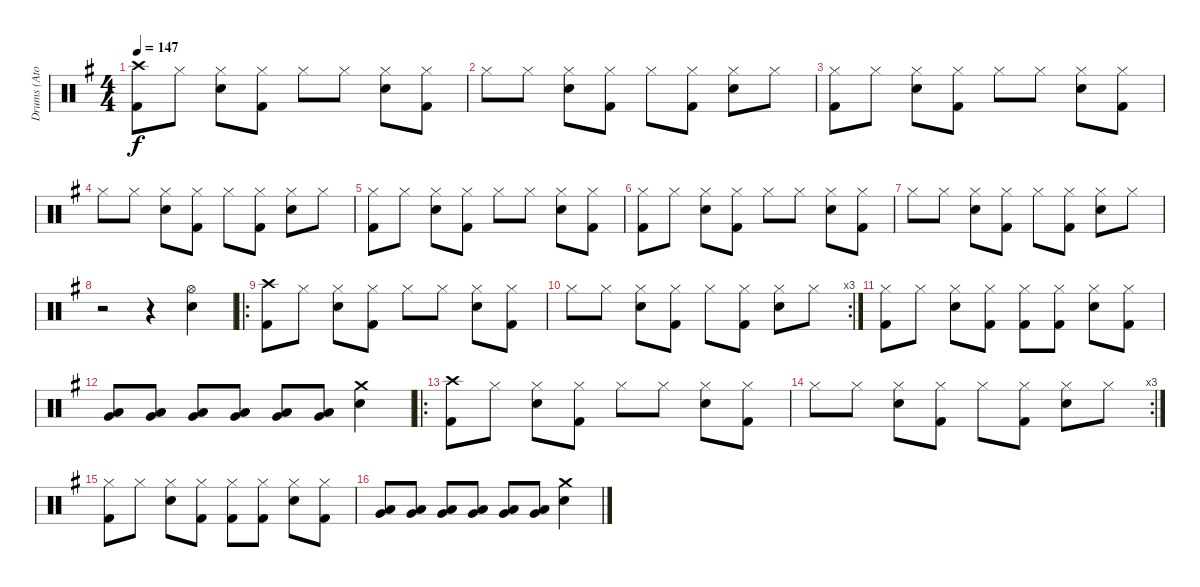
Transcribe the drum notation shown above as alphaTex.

\track ("Drums (Atom Willard)" "Drums (Ato") {instrument percussion}
\staff {score}
\articulation defaults
\ts (4 4)
\tempo 147
\clef neutral
\ks g
("Crash high (hit)" "Kick (hit) 2").8{dy f} "Hi-Hat (closed)".8 ("Hi-Hat (closed)" "Snare (hit) 2").8 ("Hi-Hat (closed)" "Kick (hit) 2").8 "Hi-Hat (closed)".8 "Hi-Hat (closed)".8 ("Hi-Hat (closed)" "Snare (hit) 2").8 ("Hi-Hat (closed)" "Kick (hit) 2").8 |
"Hi-Hat (closed)".8 "Hi-Hat (closed)".8 ("Hi-Hat (closed)" "Snare (hit) 2").8 ("Hi-Hat (closed)" "Kick (hit) 2").8 "Hi-Hat (closed)".8 ("Hi-Hat (closed)" "Kick (hit) 2").8 ("Hi-Hat (closed)" "Snare (hit) 2").8 "Hi-Hat (closed)".8 |
("Hi-Hat (closed)" "Kick (hit) 2").8 "Hi-Hat (closed)".8 ("Hi-Hat (closed)" "Snare (hit) 2").8 ("Hi-Hat (closed)" "Kick (hit) 2").8 "Hi-Hat (closed)".8 "Hi-Hat (closed)".8 ("Hi-Hat (closed)" "Snare (hit) 2").8 ("Hi-Hat (closed)" "Kick (hit) 2").8 |
"Hi-Hat (closed)".8 "Hi-Hat (closed)".8 ("Hi-Hat (closed)" "Snare (hit) 2").8 ("Hi-Hat (closed)" "Kick (hit) 2").8 "Hi-Hat (closed)".8 ("Hi-Hat (closed)" "Kick (hit) 2").8 ("Hi-Hat (closed)" "Snare (hit) 2").8 "Hi-Hat (closed)".8 |
("Hi-Hat (closed)" "Kick (hit) 2").8 "Hi-Hat (closed)".8 ("Hi-Hat (closed)" "Snare (hit) 2").8 ("Hi-Hat (closed)" "Kick (hit) 2").8 "Hi-Hat (closed)".8 "Hi-Hat (closed)".8 ("Hi-Hat (closed)" "Snare (hit) 2").8 ("Hi-Hat (closed)" "Kick (hit) 2").8 |
("Hi-Hat (closed)" "Kick (hit) 2").8 "Hi-Hat (closed)".8 ("Hi-Hat (closed)" "Snare (hit) 2").8 ("Hi-Hat (closed)" "Kick (hit) 2").8 "Hi-Hat (closed)".8 "Hi-Hat (closed)".8 ("Hi-Hat (closed)" "Snare (hit) 2").8 ("Hi-Hat (closed)" "Kick (hit) 2").8 |
"Hi-Hat (closed)".8 "Hi-Hat (closed)".8 ("Hi-Hat (closed)" "Snare (hit) 2").8 ("Hi-Hat (closed)" "Kick (hit) 2").8 "Hi-Hat (closed)".8 ("Hi-Hat (closed)" "Kick (hit) 2").8 ("Hi-Hat (closed)" "Snare (hit) 2").8 "Hi-Hat (closed)".8 |
r.2 r.4 ("Hi-Hat (open)" "Snare (hit) 2").4 |
\ro
("Crash high (hit)" "Kick (hit) 2").8 "Hi-Hat (closed)".8 ("Hi-Hat (closed)" "Snare (hit) 2").8 ("Hi-Hat (closed)" "Kick (hit) 2").8 "Hi-Hat (closed)".8 "Hi-Hat (closed)".8 ("Hi-Hat (closed)" "Snare (hit) 2").8 ("Hi-Hat (closed)" "Kick (hit) 2").8 |
\rc 3 "Hi-Hat (closed)".8 "Hi-Hat (closed)".8
("Hi-Hat (closed)" "Snare (hit) 2").8 ("Hi-Hat (closed)" "Kick (hit) 2").8 "Hi-Hat (closed)".8 ("Hi-Hat (closed)" "Kick (hit) 2").8 ("Hi-Hat (closed)" "Snare (hit) 2").8 "Hi-Hat (closed)".8 |
("Hi-Hat (closed)" "Kick (hit) 2").8 "Hi-Hat (closed)".8 ("Hi-Hat (closed)" "Snare (hit) 2").8 ("Hi-Hat (closed)" "Kick (hit) 2").8 ("Hi-Hat (closed)" "Kick (hit) 2").8 ("Hi-Hat (closed)" "Kick (hit) 2").8 ("Hi-Hat (closed)" "Snare (hit) 2").8 ("Hi-Hat (closed)" "Kick (hit) 2").8 |
("Very Low Tom (hit)" "Low Floor Tom (hit)").8 ("Very Low Tom (hit)" "Low Floor Tom (hit)").8 ("Very Low Tom (hit)" "Low Floor Tom (hit)").8 ("Very Low Tom (hit)" "Low Floor Tom (hit)").8 ("Very Low Tom (hit)" "Low Floor Tom (hit)").8 ("Very Low Tom (hit)" "Low Floor Tom (hit)").8 ("Crash medium (hit)" "Snare (hit) 2").4 |
\ro
("Crash high (hit)" "Kick (hit) 2").8 "Hi-Hat (closed)".8 ("Hi-Hat (closed)" "Snare (hit) 2").8 ("Hi-Hat (closed)" "Kick (hit) 2").8 "Hi-Hat (closed)".8 "Hi-Hat (closed)".8 ("Hi-Hat (closed)" "Snare (hit) 2").8 ("Hi-Hat (closed)" "Kick (hit) 2").8 |
\rc 3 "Hi-Hat (closed)".8 "Hi-Hat (closed)".8
("Hi-Hat (closed)" "Snare (hit) 2").8 ("Hi-Hat (closed)" "Kick (hit) 2").8 "Hi-Hat (closed)".8 ("Hi-Hat (closed)" "Kick (hit) 2").8 ("Hi-Hat (closed)" "Snare (hit) 2").8 "Hi-Hat (closed)".8 |
("Hi-Hat (closed)" "Kick (hit) 2").8 "Hi-Hat (closed)".8 ("Hi-Hat (closed)" "Snare (hit) 2").8 ("Hi-Hat (closed)" "Kick (hit) 2").8 ("Hi-Hat (closed)" "Kick (hit) 2").8 ("Hi-Hat (closed)" "Kick (hit) 2").8 ("Hi-Hat (closed)" "Snare (hit) 2").8 ("Hi-Hat (closed)" "Kick (hit) 2").8 |
("Very Low Tom (hit)" "Low Floor Tom (hit)").8 ("Very Low Tom (hit)" "Low Floor Tom (hit)").8 ("Very Low Tom (hit)" "Low Floor Tom (hit)").8 ("Very Low Tom (hit)" "Low Floor Tom (hit)").8 ("Very Low Tom (hit)" "Low Floor Tom (hit)").8 ("Very Low Tom (hit)" "Low Floor Tom (hit)").8 ("Crash medium (hit)" "Snare (hit) 2").4
